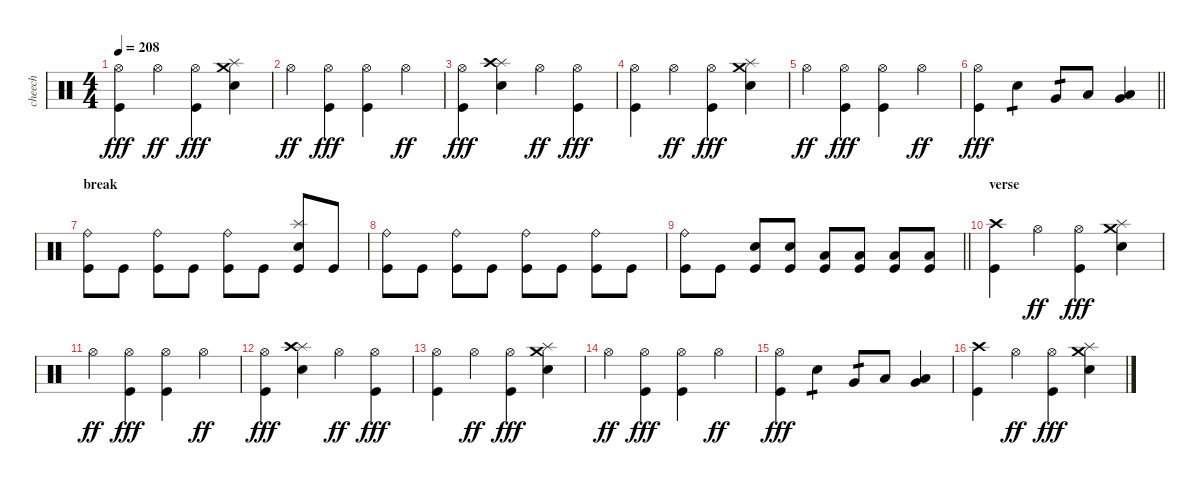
\track ("cheech" "cheech") {instrument percussion}
\staff {score}
\articulation defaults
\ts (4 4)
\tempo 208
\clef neutral
\ks c
("Hi-Hat (open)" "Kick (hit)").4{dy fff} "Hi-Hat (open)".4{dy ff} ("Hi-Hat (open)" "Kick (hit)").4{dy fff} ("Splash (hit)" "Crash medium (hit)" "Electric Snare (hit)").4 |
"Hi-Hat (open)".4{dy ff} ("Hi-Hat (open)" "Kick (hit)").4{dy fff} ("Hi-Hat (open)" "Kick (hit)").4 "Hi-Hat (open)".4{dy ff} |
("Hi-Hat (open)" "Kick (hit)").4{dy fff} ("Splash (hit)" "Crash high (hit)" "Electric Snare (hit)").4 "Hi-Hat (open)".4{dy ff} ("Hi-Hat (open)" "Kick (hit)").4{dy fff} |
("Hi-Hat (open)" "Kick (hit)").4 "Hi-Hat (open)".4{dy ff} ("Hi-Hat (open)" "Kick (hit)").4{dy fff} ("Splash (hit)" "Crash medium (hit)" "Electric Snare (hit)").4 |
"Hi-Hat (open)".4{dy ff} ("Hi-Hat (open)" "Kick (hit)").4{dy fff} ("Hi-Hat (open)" "Kick (hit)").4 "Hi-Hat (open)".4{dy ff} |
\barLineRight lightlight
("Hi-Hat (open)" "Kick (hit)").4{dy fff} "Electric Snare (hit)".4{tp 1} "Very Low Tom (hit)".8{tp 1} "Low Tom (hit)".8 ("Very Low Tom (hit)" "Low Floor Tom (hit)").4 |
\section ("" "break")
("Ride (bell)" "Kick (hit)").8 "Kick (hit)".8 ("Ride (bell)" "Kick (hit)").8 "Kick (hit)".8 ("Ride (bell)" "Kick (hit)").8 "Kick (hit)".8 ("Splash (hit)" "Electric Snare (hit)" "Kick (hit)").8 "Kick (hit)".8 |
("Ride (bell)" "Kick (hit)").8 "Kick (hit)".8 ("Ride (bell)" "Kick (hit)").8 "Kick (hit)".8 ("Ride (bell)" "Kick (hit)").8 "Kick (hit)".8 ("Ride (bell)" "Kick (hit)").8 "Kick (hit)".8 |
\barLineRight lightlight
("Ride (bell)" "Kick (hit)").8 "Kick (hit)".8 ("Electric Snare (hit)" "Kick (hit)").8 ("Electric Snare (hit)" "Kick (hit)").8 ("Low Tom (hit)" "Kick (hit)").8 ("Low Tom (hit)" "Kick (hit)").8 ("Low Floor Tom (hit)" "Kick (hit)").8 ("Low Floor Tom (hit)" "Kick (hit)").8 |
\section ("" "verse")
("Crash high (hit)" "Kick (hit)").4 "Hi-Hat (open)".4{dy ff} ("Hi-Hat (open)" "Kick (hit)").4{dy fff} ("Splash (hit)" "Crash medium (hit)" "Electric Snare (hit)").4 |
"Hi-Hat (open)".4{dy ff} ("Hi-Hat (open)" "Kick (hit)").4{dy fff} ("Hi-Hat (open)" "Kick (hit)").4 "Hi-Hat (open)".4{dy ff} |
("Hi-Hat (open)" "Kick (hit)").4{dy fff} ("Splash (hit)" "Crash high (hit)" "Electric Snare (hit)").4 "Hi-Hat (open)".4{dy ff} ("Hi-Hat (open)" "Kick (hit)").4{dy fff} |
("Hi-Hat (open)" "Kick (hit)").4 "Hi-Hat (open)".4{dy ff} ("Hi-Hat (open)" "Kick (hit)").4{dy fff} ("Splash (hit)" "Crash medium (hit)" "Electric Snare (hit)").4 |
"Hi-Hat (open)".4{dy ff} ("Hi-Hat (open)" "Kick (hit)").4{dy fff} ("Hi-Hat (open)" "Kick (hit)").4 "Hi-Hat (open)".4{dy ff} |
("Hi-Hat (open)" "Kick (hit)").4{dy fff} "Electric Snare (hit)".4{tp 1} "Very Low Tom (hit)".8{tp 1} "Low Tom (hit)".8 ("Very Low Tom (hit)" "Low Floor Tom (hit)").4 |
("Crash high (hit)" "Kick (hit)").4 "Hi-Hat (open)".4{dy ff} ("Hi-Hat (open)" "Kick (hit)").4{dy fff} ("Splash (hit)" "Crash medium (hit)" "Electric Snare (hit)").4
